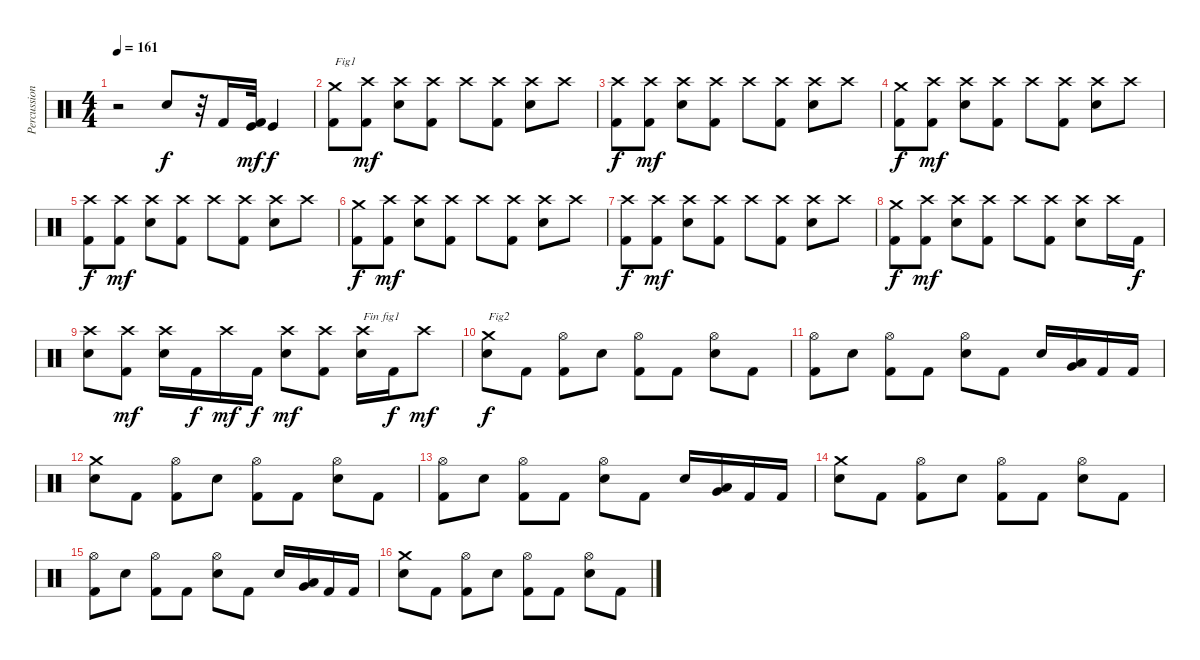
\track ("Percussions" "Percussion") {instrument percussion}
\staff {score}
\articulation defaults
\ts (4 4)
\tempo 161
\clef neutral
\ks c
r.2{dy f} "Electric Snare (hit)".8 r.32 "Kick (hit) 2".16 ("Kick (hit) 2" "Kick (hit)").32{dy mf} "Kick (hit)".4{dy f} |
("Kick (hit) 2" "Crash medium (hit)").8{txt "Fig1"} ("Kick (hit) 2" "Crash high (hit)").8{dy mf} ("Electric Snare (hit)" "Crash high (hit)").8 ("Kick (hit) 2" "Crash high (hit)").8 "Crash high (hit)".8 ("Kick (hit) 2" "Crash high (hit)").8 ("Electric Snare (hit)" "Crash high (hit)").8 "Crash high (hit)".8 |
("Kick (hit) 2" "Crash high (hit)").8{dy f} ("Kick (hit) 2" "Crash high (hit)").8{dy mf} ("Electric Snare (hit)" "Crash high (hit)").8 ("Kick (hit) 2" "Crash high (hit)").8 "Crash high (hit)".8 ("Kick (hit) 2" "Crash high (hit)").8 ("Electric Snare (hit)" "Crash high (hit)").8 "Crash high (hit)".8 |
("Kick (hit) 2" "Crash medium (hit)").8{dy f} ("Kick (hit) 2" "Crash high (hit)").8{dy mf} ("Electric Snare (hit)" "Crash high (hit)").8 ("Kick (hit) 2" "Crash high (hit)").8 "Crash high (hit)".8 ("Kick (hit) 2" "Crash high (hit)").8 ("Electric Snare (hit)" "Crash high (hit)").8 "Crash high (hit)".8 |
("Kick (hit) 2" "Crash high (hit)").8{dy f} ("Kick (hit) 2" "Crash high (hit)").8{dy mf} ("Electric Snare (hit)" "Crash high (hit)").8 ("Kick (hit) 2" "Crash high (hit)").8 "Crash high (hit)".8 ("Kick (hit) 2" "Crash high (hit)").8 ("Electric Snare (hit)" "Crash high (hit)").8 "Crash high (hit)".8 |
("Kick (hit) 2" "Crash medium (hit)").8{dy f} ("Kick (hit) 2" "Crash high (hit)").8{dy mf} ("Electric Snare (hit)" "Crash high (hit)").8 ("Kick (hit) 2" "Crash high (hit)").8 "Crash high (hit)".8 ("Kick (hit) 2" "Crash high (hit)").8 ("Electric Snare (hit)" "Crash high (hit)").8 "Crash high (hit)".8 |
("Kick (hit) 2" "Crash high (hit)").8{dy f} ("Kick (hit) 2" "Crash high (hit)").8{dy mf} ("Electric Snare (hit)" "Crash high (hit)").8 ("Kick (hit) 2" "Crash high (hit)").8 "Crash high (hit)".8 ("Kick (hit) 2" "Crash high (hit)").8 ("Electric Snare (hit)" "Crash high (hit)").8 "Crash high (hit)".8 |
("Kick (hit) 2" "Crash medium (hit)").8{dy f} ("Kick (hit) 2" "Crash high (hit)").8{dy mf} ("Electric Snare (hit)" "Crash high (hit)").8 ("Kick (hit) 2" "Crash high (hit)").8 "Crash high (hit)".8 ("Kick (hit) 2" "Crash high (hit)").8 ("Electric Snare (hit)" "Crash high (hit)").8 "Crash high (hit)".16 "Kick (hit) 2".16{dy f} |
("Electric Snare (hit)" "Crash high (hit)").8 ("Kick (hit) 2" "Crash high (hit)").8{dy mf} ("Electric Snare (hit)" "Crash high (hit)").16 "Kick (hit) 2".16{dy f} "Crash high (hit)".16{dy mf} "Kick (hit) 2".16{dy f} ("Electric Snare (hit)" "Crash high (hit)").8{dy mf} ("Kick (hit) 2" "Crash high (hit)").8 ("Electric Snare (hit)" "Crash high (hit)").16{txt "Fin fig1"} "Kick (hit) 2".16{dy f} "Crash high (hit)".8{dy mf} |
("Electric Snare (hit)" "Crash medium (hit)").8{txt "Fig2" dy f} "Kick (hit) 2".8 ("Kick (hit) 2" "Hi-Hat (open)").8 "Electric Snare (hit)".8 ("Kick (hit) 2" "Hi-Hat (open)").8 "Kick (hit) 2".8 ("Electric Snare (hit)" "Hi-Hat (open)").8 "Kick (hit) 2".8 |
("Kick (hit) 2" "Hi-Hat (open)").8 "Electric Snare (hit)".8 ("Kick (hit) 2" "Hi-Hat (open)").8 "Kick (hit) 2".8 ("Electric Snare (hit)" "Hi-Hat (open)").8 "Kick (hit) 2".8 "Electric Snare (hit)".16 ("Very Low Tom (hit)" "Low Tom (hit)").16 "Kick (hit) 2".16 "Kick (hit) 2".16 |
("Electric Snare (hit)" "Crash medium (hit)").8 "Kick (hit) 2".8 ("Kick (hit) 2" "Hi-Hat (open)").8 "Electric Snare (hit)".8 ("Kick (hit) 2" "Hi-Hat (open)").8 "Kick (hit) 2".8 ("Electric Snare (hit)" "Hi-Hat (open)").8 "Kick (hit) 2".8 |
("Kick (hit) 2" "Hi-Hat (open)").8 "Electric Snare (hit)".8 ("Kick (hit) 2" "Hi-Hat (open)").8 "Kick (hit) 2".8 ("Electric Snare (hit)" "Hi-Hat (open)").8 "Kick (hit) 2".8 "Electric Snare (hit)".16 ("Very Low Tom (hit)" "Low Tom (hit)").16 "Kick (hit) 2".16 "Kick (hit) 2".16 |
("Electric Snare (hit)" "Crash medium (hit)").8 "Kick (hit) 2".8 ("Kick (hit) 2" "Hi-Hat (open)").8 "Electric Snare (hit)".8 ("Kick (hit) 2" "Hi-Hat (open)").8 "Kick (hit) 2".8 ("Electric Snare (hit)" "Hi-Hat (open)").8 "Kick (hit) 2".8 |
("Kick (hit) 2" "Hi-Hat (open)").8 "Electric Snare (hit)".8 ("Kick (hit) 2" "Hi-Hat (open)").8 "Kick (hit) 2".8 ("Electric Snare (hit)" "Hi-Hat (open)").8 "Kick (hit) 2".8 "Electric Snare (hit)".16 ("Very Low Tom (hit)" "Low Tom (hit)").16 "Kick (hit) 2".16 "Kick (hit) 2".16 |
("Electric Snare (hit)" "Crash medium (hit)").8 "Kick (hit) 2".8 ("Kick (hit) 2" "Hi-Hat (open)").8 "Electric Snare (hit)".8 ("Kick (hit) 2" "Hi-Hat (open)").8 "Kick (hit) 2".8 ("Electric Snare (hit)" "Hi-Hat (open)").8 "Kick (hit) 2".8
